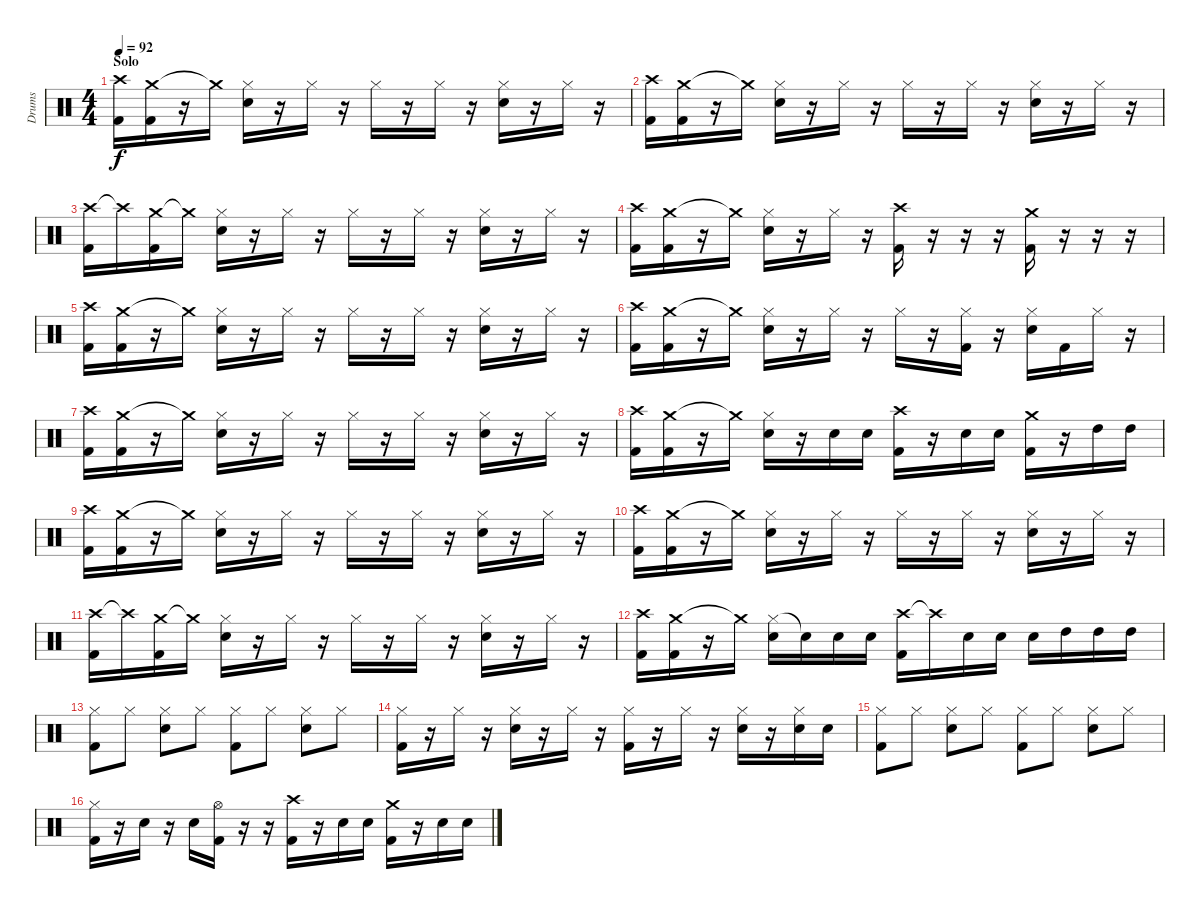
\track ("Drums" "Drums") {instrument percussion}
\staff {score}
\articulation defaults
\ts (4 4)
\section ("" "Solo")
\tempo 92
\clef neutral
\ks c
("Crash high (hit)" "Kick (hit) 2").16{dy f} ("Crash medium (hit)" "Kick (hit) 2").16 r.16 "Crash medium (hit)"{t}.16 ("Hi-Hat (closed)" "Snare (hit) 2").16 r.16 "Hi-Hat (closed)".16 r.16 "Hi-Hat (closed)".16 r.16 "Hi-Hat (closed)".16 r.16 ("Hi-Hat (closed)" "Snare (hit) 2").16 r.16 "Hi-Hat (closed)".16 r.16 |
("Crash high (hit)" "Kick (hit) 2").16 ("Crash medium (hit)" "Kick (hit) 2").16 r.16 "Crash medium (hit)"{t}.16 ("Hi-Hat (closed)" "Snare (hit) 2").16 r.16 "Hi-Hat (closed)".16 r.16 "Hi-Hat (closed)".16 r.16 "Hi-Hat (closed)".16 r.16 ("Hi-Hat (closed)" "Snare (hit) 2").16 r.16 "Hi-Hat (closed)".16 r.16 |
("Crash high (hit)" "Kick (hit) 2").16 "Crash high (hit)"{t}.16 ("Crash medium (hit)" "Kick (hit) 2").16 "Crash medium (hit)"{t}.16 ("Hi-Hat (closed)" "Snare (hit) 2").16 r.16 "Hi-Hat (closed)".16 r.16 "Hi-Hat (closed)".16 r.16 "Hi-Hat (closed)".16 r.16 ("Hi-Hat (closed)" "Snare (hit) 2").16 r.16 "Hi-Hat (closed)".16 r.16 |
("Crash high (hit)" "Kick (hit) 2").16 ("Crash medium (hit)" "Kick (hit) 2").16 r.16 "Crash medium (hit)"{t}.16 ("Hi-Hat (closed)" "Snare (hit) 2").16 r.16 "Hi-Hat (closed)".16 r.16 ("Crash high (hit)" "Kick (hit) 2").16 r.16 r.16 r.16 ("Crash medium (hit)" "Kick (hit) 2").16 r.16 r.16 r.16 |
("Crash high (hit)" "Kick (hit) 2").16 ("Crash medium (hit)" "Kick (hit) 2").16 r.16 "Crash medium (hit)"{t}.16 ("Hi-Hat (closed)" "Snare (hit) 2").16 r.16 "Hi-Hat (closed)".16 r.16 "Hi-Hat (closed)".16 r.16 "Hi-Hat (closed)".16 r.16 ("Hi-Hat (closed)" "Snare (hit) 2").16 r.16 "Hi-Hat (closed)".16 r.16 |
("Crash high (hit)" "Kick (hit) 2").16 ("Crash medium (hit)" "Kick (hit) 2").16 r.16 "Crash medium (hit)"{t}.16 ("Hi-Hat (closed)" "Snare (hit) 2").16 r.16 "Hi-Hat (closed)".16 r.16 "Hi-Hat (closed)".16 r.16 ("Hi-Hat (closed)" "Kick (hit) 2").16 r.16 ("Hi-Hat (closed)" "Snare (hit) 2").16 "Kick (hit) 2".16 "Hi-Hat (closed)".16 r.16 |
("Crash high (hit)" "Kick (hit) 2").16 ("Crash medium (hit)" "Kick (hit) 2").16 r.16 "Crash medium (hit)"{t}.16 ("Hi-Hat (closed)" "Snare (hit) 2").16 r.16 "Hi-Hat (closed)".16 r.16 "Hi-Hat (closed)".16 r.16 "Hi-Hat (closed)".16 r.16 ("Hi-Hat (closed)" "Snare (hit) 2").16 r.16 "Hi-Hat (closed)".16 r.16 |
("Crash high (hit)" "Kick (hit) 2").16 ("Crash medium (hit)" "Kick (hit) 2").16 r.16 "Crash medium (hit)"{t}.16 ("Hi-Hat (closed)" "Snare (hit) 2").16 r.16 "Snare (hit) 2".16 "Snare (hit) 2".16 ("Crash high (hit)" "Kick (hit) 2").16 r.16 "Snare (hit) 2".16 "Snare (hit) 2".16 ("Crash medium (hit)" "Kick (hit) 2").16 r.16 "High Tom (hit)".16 "High Tom (hit)".16 |
("Crash high (hit)" "Kick (hit) 2").16 ("Crash medium (hit)" "Kick (hit) 2").16 r.16 "Crash medium (hit)"{t}.16 ("Hi-Hat (closed)" "Snare (hit) 2").16 r.16 "Hi-Hat (closed)".16 r.16 "Hi-Hat (closed)".16 r.16 "Hi-Hat (closed)".16 r.16 ("Hi-Hat (closed)" "Snare (hit) 2").16 r.16 "Hi-Hat (closed)".16 r.16 |
("Crash high (hit)" "Kick (hit) 2").16 ("Crash medium (hit)" "Kick (hit) 2").16 r.16 "Crash medium (hit)"{t}.16 ("Hi-Hat (closed)" "Snare (hit) 2").16 r.16 "Hi-Hat (closed)".16 r.16 "Hi-Hat (closed)".16 r.16 "Hi-Hat (closed)".16 r.16 ("Hi-Hat (closed)" "Snare (hit) 2").16 r.16 "Hi-Hat (closed)".16 r.16 |
("Crash high (hit)" "Kick (hit) 2").16 "Crash high (hit)"{t}.16 ("Crash medium (hit)" "Kick (hit) 2").16 "Crash medium (hit)"{t}.16 ("Hi-Hat (closed)" "Snare (hit) 2").16 r.16 "Hi-Hat (closed)".16 r.16 "Hi-Hat (closed)".16 r.16 "Hi-Hat (closed)".16 r.16 ("Hi-Hat (closed)" "Snare (hit) 2").16 r.16 "Hi-Hat (closed)".16 r.16 |
("Crash high (hit)" "Kick (hit) 2").16 ("Crash medium (hit)" "Kick (hit) 2").16 r.16 "Crash medium (hit)"{t}.16 ("Hi-Hat (closed)" "Snare (hit) 2").16 "Snare (hit) 2"{t}.16 "Snare (hit) 2".16 "Snare (hit) 2".16 ("Crash high (hit)" "Kick (hit) 2").16 "Crash high (hit)"{t}.16 "Snare (hit) 2".16 "Snare (hit) 2".16 "Snare (hit) 2".16 "High Tom (hit)".16 "High Tom (hit)".16 "High Tom (hit)".16 |
("Hi-Hat (closed)" "Kick (hit) 2").8 "Hi-Hat (closed)".8 ("Hi-Hat (closed)" "Snare (hit) 2").8 "Hi-Hat (closed)".8 ("Hi-Hat (closed)" "Kick (hit) 2").8 "Hi-Hat (closed)".8 ("Hi-Hat (closed)" "Snare (hit) 2").8 "Hi-Hat (closed)".8 |
("Hi-Hat (closed)" "Kick (hit) 2").16 r.16 "Hi-Hat (closed)".16 r.16 ("Hi-Hat (closed)" "Snare (hit) 2").16 r.16 "Hi-Hat (closed)".16 r.16 ("Hi-Hat (closed)" "Kick (hit) 2").16 r.16 "Hi-Hat (closed)".16 r.16 ("Hi-Hat (closed)" "Snare (hit) 2").16 r.16 ("Hi-Hat (closed)" "Snare (hit) 2").16 "Snare (hit) 2".16 |
("Hi-Hat (closed)" "Kick (hit) 2").8 "Hi-Hat (closed)".8 ("Hi-Hat (closed)" "Snare (hit) 2").8 "Hi-Hat (closed)".8 ("Hi-Hat (closed)" "Kick (hit) 2").8 "Hi-Hat (closed)".8 ("Hi-Hat (closed)" "Snare (hit) 2").8 "Hi-Hat (closed)".8 |
("Hi-Hat (closed)" "Kick (hit) 2").16 r.16 "Snare (hit) 2".16 r.16 "Snare (hit) 2".16 ("Hi-Hat (open)" "Kick (hit) 2").16 r.16 r.16 ("Crash high (hit)" "Kick (hit) 2").16 r.16 "Snare (hit) 2".16 "Snare (hit) 2".16 ("Crash medium (hit)" "Kick (hit) 2").16 r.16 "Snare (hit) 2".16 "Snare (hit) 2".16
